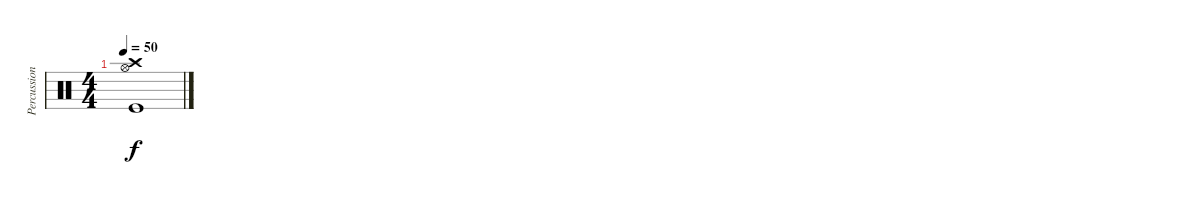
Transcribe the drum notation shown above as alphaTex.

\track ("Percussion" "Percussion") {instrument percussion}
\staff {score}
\articulation defaults
\ts (4 4)
\tempo 50
\clef neutral
\ks c
("Hi-Hat (open)" "Crash high (hit)" "Kick (hit)").1{dy f}
